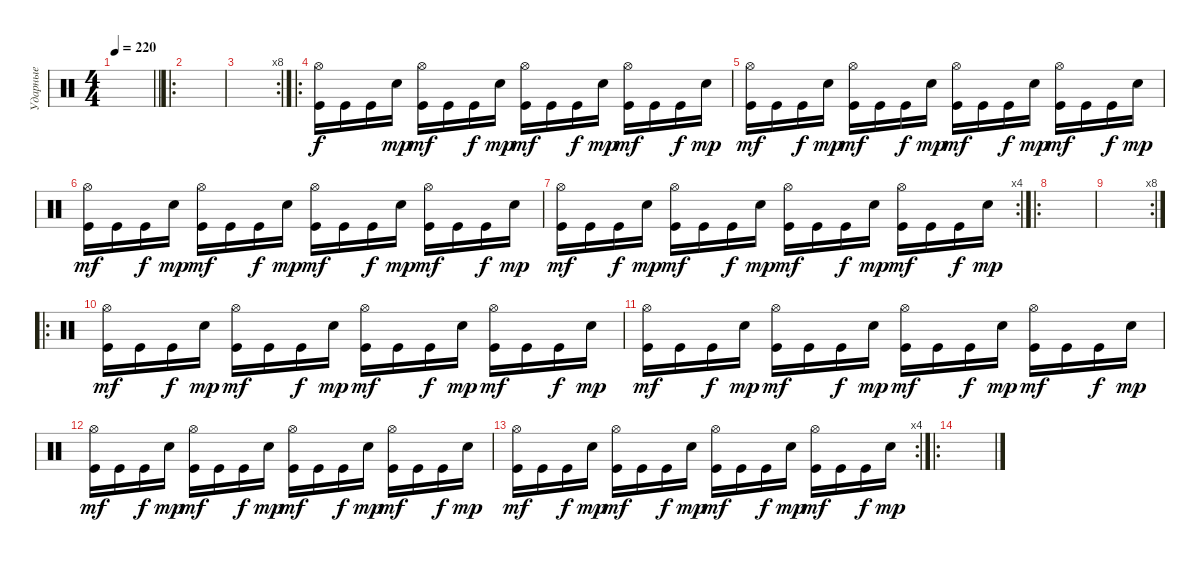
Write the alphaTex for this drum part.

\track ("Ударные" "Ударные") {instrument percussion}
\staff {score}
\articulation defaults
\ts (4 4)
\tempo 220
\clef neutral
\barLineRight lightlight
\ks c
|
\ro
|
\rc 8
|
\ro
("Hi-Hat (open)" "Kick (hit)").16 "Kick (hit)".16 "Kick (hit)".16{dy f} "Electric Snare (hit)".16{dy mp} ("Hi-Hat (open)" "Kick (hit)").16{dy mf} "Kick (hit)".16 "Kick (hit)".16{dy f} "Electric Snare (hit)".16{dy mp} ("Hi-Hat (open)" "Kick (hit)").16{dy mf} "Kick (hit)".16 "Kick (hit)".16{dy f} "Electric Snare (hit)".16{dy mp} ("Hi-Hat (open)" "Kick (hit)").16{dy mf} "Kick (hit)".16 "Kick (hit)".16{dy f} "Electric Snare (hit)".16{dy mp} |
("Hi-Hat (open)" "Kick (hit)").16{dy mf} "Kick (hit)".16 "Kick (hit)".16{dy f} "Electric Snare (hit)".16{dy mp} ("Hi-Hat (open)" "Kick (hit)").16{dy mf} "Kick (hit)".16 "Kick (hit)".16{dy f} "Electric Snare (hit)".16{dy mp} ("Hi-Hat (open)" "Kick (hit)").16{dy mf} "Kick (hit)".16 "Kick (hit)".16{dy f} "Electric Snare (hit)".16{dy mp} ("Hi-Hat (open)" "Kick (hit)").16{dy mf} "Kick (hit)".16 "Kick (hit)".16{dy f} "Electric Snare (hit)".16{dy mp} |
("Hi-Hat (open)" "Kick (hit)").16{dy mf} "Kick (hit)".16 "Kick (hit)".16{dy f} "Electric Snare (hit)".16{dy mp} ("Hi-Hat (open)" "Kick (hit)").16{dy mf} "Kick (hit)".16 "Kick (hit)".16{dy f} "Electric Snare (hit)".16{dy mp} ("Hi-Hat (open)" "Kick (hit)").16{dy mf} "Kick (hit)".16 "Kick (hit)".16{dy f} "Electric Snare (hit)".16{dy mp} ("Hi-Hat (open)" "Kick (hit)").16{dy mf} "Kick (hit)".16 "Kick (hit)".16{dy f} "Electric Snare (hit)".16{dy mp} |
\rc 4
("Hi-Hat (open)" "Kick (hit)").16{dy mf} "Kick (hit)".16 "Kick (hit)".16{dy f} "Electric Snare (hit)".16{dy mp} ("Hi-Hat (open)" "Kick (hit)").16{dy mf} "Kick (hit)".16 "Kick (hit)".16{dy f} "Electric Snare (hit)".16{dy mp} ("Hi-Hat (open)" "Kick (hit)").16{dy mf} "Kick (hit)".16 "Kick (hit)".16{dy f} "Electric Snare (hit)".16{dy mp} ("Hi-Hat (open)" "Kick (hit)").16{dy mf} "Kick (hit)".16 "Kick (hit)".16{dy f} "Electric Snare (hit)".16{dy mp} |
\ro
|
\rc 8
|
\ro
("Hi-Hat (open)" "Kick (hit)").16{dy mf} "Kick (hit)".16 "Kick (hit)".16{dy f} "Electric Snare (hit)".16{dy mp} ("Hi-Hat (open)" "Kick (hit)").16{dy mf} "Kick (hit)".16 "Kick (hit)".16{dy f} "Electric Snare (hit)".16{dy mp} ("Hi-Hat (open)" "Kick (hit)").16{dy mf} "Kick (hit)".16 "Kick (hit)".16{dy f} "Electric Snare (hit)".16{dy mp} ("Hi-Hat (open)" "Kick (hit)").16{dy mf} "Kick (hit)".16 "Kick (hit)".16{dy f} "Electric Snare (hit)".16{dy mp} |
("Hi-Hat (open)" "Kick (hit)").16{dy mf} "Kick (hit)".16 "Kick (hit)".16{dy f} "Electric Snare (hit)".16{dy mp} ("Hi-Hat (open)" "Kick (hit)").16{dy mf} "Kick (hit)".16 "Kick (hit)".16{dy f} "Electric Snare (hit)".16{dy mp} ("Hi-Hat (open)" "Kick (hit)").16{dy mf} "Kick (hit)".16 "Kick (hit)".16{dy f} "Electric Snare (hit)".16{dy mp} ("Hi-Hat (open)" "Kick (hit)").16{dy mf} "Kick (hit)".16 "Kick (hit)".16{dy f} "Electric Snare (hit)".16{dy mp} |
("Hi-Hat (open)" "Kick (hit)").16{dy mf} "Kick (hit)".16 "Kick (hit)".16{dy f} "Electric Snare (hit)".16{dy mp} ("Hi-Hat (open)" "Kick (hit)").16{dy mf} "Kick (hit)".16 "Kick (hit)".16{dy f} "Electric Snare (hit)".16{dy mp} ("Hi-Hat (open)" "Kick (hit)").16{dy mf} "Kick (hit)".16 "Kick (hit)".16{dy f} "Electric Snare (hit)".16{dy mp} ("Hi-Hat (open)" "Kick (hit)").16{dy mf} "Kick (hit)".16 "Kick (hit)".16{dy f} "Electric Snare (hit)".16{dy mp} |
\rc 4
("Hi-Hat (open)" "Kick (hit)").16{dy mf} "Kick (hit)".16 "Kick (hit)".16{dy f} "Electric Snare (hit)".16{dy mp} ("Hi-Hat (open)" "Kick (hit)").16{dy mf} "Kick (hit)".16 "Kick (hit)".16{dy f} "Electric Snare (hit)".16{dy mp} ("Hi-Hat (open)" "Kick (hit)").16{dy mf} "Kick (hit)".16 "Kick (hit)".16{dy f} "Electric Snare (hit)".16{dy mp} ("Hi-Hat (open)" "Kick (hit)").16{dy mf} "Kick (hit)".16 "Kick (hit)".16{dy f} "Electric Snare (hit)".16{dy mp} |
\ro
